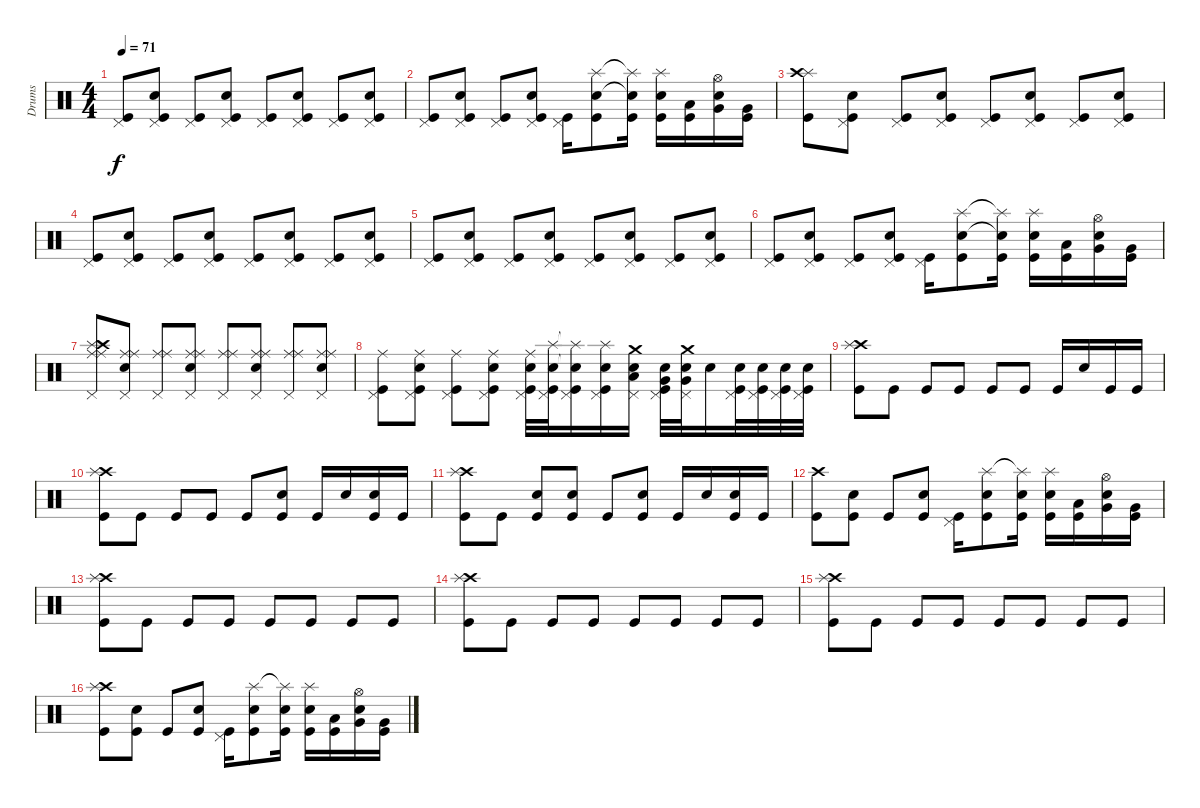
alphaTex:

\track ("Drums" "Drums") {instrument percussion}
\staff {score}
\articulation defaults
\ts (4 4)
\tempo 71
\clef neutral
\ks c
("Kick (hit)" "Pedal Hi-Hat (hit)").8{dy f} ("Snare (hit) 2" "Kick (hit)" "Pedal Hi-Hat (hit)").8 ("Kick (hit)" "Pedal Hi-Hat (hit)").8 ("Electric Snare (hit)" "Kick (hit)" "Pedal Hi-Hat (hit)").8 ("Kick (hit)" "Pedal Hi-Hat (hit)").8 ("Snare (hit) 2" "Kick (hit)" "Pedal Hi-Hat (hit)").8 ("Kick (hit)" "Pedal Hi-Hat (hit)").8 ("Electric Snare (hit)" "Kick (hit)" "Pedal Hi-Hat (hit)").8 |
("Pedal Hi-Hat (hit)" "Kick (hit)").8 ("Snare (hit) 2" "Pedal Hi-Hat (hit)" "Kick (hit)").8 ("Pedal Hi-Hat (hit)" "Kick (hit)").8 ("Electric Snare (hit)" "Pedal Hi-Hat (hit)" "Kick (hit)").8 ("Pedal Hi-Hat (hit)" "Kick (hit)").16 ("Snare (hit) 2" "Splash (hit)" "Kick (hit)").8 ("Snare (hit) 2"{t} "Splash (hit)"{t} "Kick (hit)").16 ("Electric Snare (hit)" "Splash (hit)" "Kick (hit)").16 ("Kick (hit)" "Low Floor Tom (hit)").16 ("Electric Snare (hit)" "Hi-Hat (open)" "Very Low Tom (hit)").16 ("Kick (hit)" "Very Low Tom (hit)").16 |
("Kick (hit)" "Splash (hit)" "Crash high (hit)").8 ("Snare (hit) 2" "Kick (hit)" "Pedal Hi-Hat (hit)").8 ("Kick (hit)" "Pedal Hi-Hat (hit)").8 ("Electric Snare (hit)" "Kick (hit)" "Pedal Hi-Hat (hit)").8 ("Kick (hit)" "Pedal Hi-Hat (hit)").8 ("Snare (hit) 2" "Kick (hit)" "Pedal Hi-Hat (hit)").8 ("Kick (hit)" "Pedal Hi-Hat (hit)").8 ("Electric Snare (hit)" "Kick (hit)" "Pedal Hi-Hat (hit)").8 |
("Kick (hit)" "Pedal Hi-Hat (hit)").8 ("Snare (hit) 2" "Kick (hit)" "Pedal Hi-Hat (hit)").8 ("Kick (hit)" "Pedal Hi-Hat (hit)").8 ("Electric Snare (hit)" "Kick (hit)" "Pedal Hi-Hat (hit)").8 ("Kick (hit)" "Pedal Hi-Hat (hit)").8 ("Snare (hit) 2" "Kick (hit)" "Pedal Hi-Hat (hit)").8 ("Kick (hit)" "Pedal Hi-Hat (hit)").8 ("Electric Snare (hit)" "Kick (hit)" "Pedal Hi-Hat (hit)").8 |
("Kick (hit)" "Pedal Hi-Hat (hit)").8 ("Snare (hit) 2" "Kick (hit)" "Pedal Hi-Hat (hit)").8 ("Kick (hit)" "Pedal Hi-Hat (hit)").8 ("Electric Snare (hit)" "Kick (hit)" "Pedal Hi-Hat (hit)").8 ("Kick (hit)" "Pedal Hi-Hat (hit)").8 ("Snare (hit) 2" "Kick (hit)" "Pedal Hi-Hat (hit)").8 ("Kick (hit)" "Pedal Hi-Hat (hit)").8 ("Electric Snare (hit)" "Kick (hit)" "Pedal Hi-Hat (hit)").8 |
("Pedal Hi-Hat (hit)" "Kick (hit)").8 ("Snare (hit) 2" "Pedal Hi-Hat (hit)" "Kick (hit)").8 ("Pedal Hi-Hat (hit)" "Kick (hit)").8 ("Electric Snare (hit)" "Pedal Hi-Hat (hit)" "Kick (hit)").8 ("Pedal Hi-Hat (hit)" "Kick (hit)").16 ("Snare (hit) 2" "Splash (hit)" "Kick (hit)").8 ("Snare (hit) 2"{t} "Splash (hit)"{t} "Kick (hit)").16 ("Electric Snare (hit)" "Splash (hit)" "Kick (hit)").16 ("Kick (hit)" "Low Floor Tom (hit)").16 ("Electric Snare (hit)" "Hi-Hat (open)" "Very Low Tom (hit)").16 ("Kick (hit)" "Very Low Tom (hit)").16 |
("Splash (hit)" "Crash high (hit)" "Ride (middle)" "Pedal Hi-Hat (hit)" "Ride (middle)").8 ("Snare (hit) 2" "Ride (middle)" "Pedal Hi-Hat (hit)" "Ride (middle)").8 ("Ride (middle)" "Pedal Hi-Hat (hit)" "Ride (middle)").8 ("Electric Snare (hit)" "Ride (middle)" "Pedal Hi-Hat (hit)" "Ride (middle)").8 ("Ride (middle)" "Pedal Hi-Hat (hit)" "Ride (middle)").8 ("Snare (hit) 2" "Ride (middle)" "Pedal Hi-Hat (hit)" "Ride (middle)").8 ("Ride (middle)" "Pedal Hi-Hat (hit)" "Ride (middle)").8 ("Electric Snare (hit)" "Ride (middle)" "Pedal Hi-Hat (hit)" "Ride (middle)").8 |
("Ride (middle)" "Kick (hit)" "Pedal Hi-Hat (hit)").8 ("Snare (hit) 2" "Ride (middle)" "Kick (hit)" "Pedal Hi-Hat (hit)").8 ("Ride (middle)" "Kick (hit)" "Pedal Hi-Hat (hit)").8 ("Electric Snare (hit)" "Ride (middle)" "Kick (hit)" "Pedal Hi-Hat (hit)").8 ("Electric Snare (hit)" "Ride (middle)" "Kick (hit)" "Pedal Hi-Hat (hit)").32 ("Snare (hit) 2" "Splash (hit)" "Kick (hit)" "Pedal Hi-Hat (hit)").32 ("Snare (hit) 2"{t} "Splash (hit)"{t} "Kick (hit)" "Pedal Hi-Hat (hit)").16 ("Electric Snare (hit)" "Splash (hit)" "Kick (hit)" "Pedal Hi-Hat (hit)").16 ("Electric Snare (hit)" "Crash medium (hit)" "Low Floor Tom (hit)" "Pedal Hi-Hat (hit)").16 ("Electric Snare (hit)" "Kick (hit)" "Very Low Tom (hit)" "Pedal Hi-Hat (hit)").32 ("Electric Snare (hit)" "Crash medium (hit)" "Very Low Tom (hit)" "Pedal Hi-Hat (hit)").32 "Electric Snare (hit)".16 ("Electric Snare (hit)" "Kick (hit)" "Pedal Hi-Hat (hit)").32 ("Electric Snare (hit)" "Kick (hit)" "Pedal Hi-Hat (hit)").32 ("Electric Snare (hit)" "Kick (hit)" "Pedal Hi-Hat (hit)").32 ("Electric Snare (hit)" "Kick (hit)" "Pedal Hi-Hat (hit)").32 |
("Kick (hit)" "Crash high (hit)" "Splash (hit)").8 "Kick (hit)".8 "Kick (hit)".8 "Kick (hit)".8 "Kick (hit)".8 "Kick (hit)".8 "Kick (hit)".16 "Electric Snare (hit)".16 "Kick (hit)".16 "Kick (hit)".16 |
("Kick (hit)" "Crash high (hit)" "Splash (hit)").8 "Kick (hit)".8 "Kick (hit)".8 "Kick (hit)".8 "Kick (hit)".8 ("Kick (hit)" "Electric Snare (hit)").8 "Kick (hit)".16 "Electric Snare (hit)".16 ("Kick (hit)" "Electric Snare (hit)").16 "Kick (hit)".16 |
("Kick (hit)" "Crash high (hit)" "Splash (hit)").8 "Kick (hit)".8 ("Kick (hit)" "Electric Snare (hit)").8 ("Kick (hit)" "Electric Snare (hit)").8 "Kick (hit)".8 ("Kick (hit)" "Electric Snare (hit)").8 "Kick (hit)".16 "Electric Snare (hit)".16 ("Kick (hit)" "Electric Snare (hit)").16 "Kick (hit)".16 |
("Kick (hit)" "Crash high (hit)").8 ("Snare (hit) 2" "Kick (hit)").8 "Kick (hit)".8 ("Electric Snare (hit)" "Kick (hit)").8 ("Pedal Hi-Hat (hit)" "Kick (hit)").16 ("Snare (hit) 2" "Splash (hit)" "Kick (hit)").8 ("Electric Snare (hit)" "Splash (hit)"{t} "Kick (hit)").16 ("Electric Snare (hit)" "Splash (hit)" "Kick (hit)").16 ("Kick (hit)" "Low Floor Tom (hit)").16 ("Electric Snare (hit)" "Hi-Hat (open)" "Very Low Tom (hit)").16 ("Kick (hit)" "Very Low Tom (hit)").16 |
("Kick (hit)" "Crash high (hit)" "Splash (hit)").8 "Kick (hit)".8 "Kick (hit)".8 "Kick (hit)".8 "Kick (hit)".8 "Kick (hit)".8 "Kick (hit)".8 "Kick (hit)".8 |
("Kick (hit)" "Crash high (hit)" "Splash (hit)").8 "Kick (hit)".8 "Kick (hit)".8 "Kick (hit)".8 "Kick (hit)".8 "Kick (hit)".8 "Kick (hit)".8 "Kick (hit)".8 |
("Kick (hit)" "Crash high (hit)" "Splash (hit)").8 "Kick (hit)".8 "Kick (hit)".8 "Kick (hit)".8 "Kick (hit)".8 "Kick (hit)".8 "Kick (hit)".8 "Kick (hit)".8 |
("Kick (hit)" "Crash high (hit)" "Splash (hit)").8 ("Snare (hit) 2" "Kick (hit)").8 "Kick (hit)".8 ("Electric Snare (hit)" "Kick (hit)").8 ("Pedal Hi-Hat (hit)" "Kick (hit)").16 ("Snare (hit) 2" "Splash (hit)" "Kick (hit)").8 ("Electric Snare (hit)" "Splash (hit)"{t} "Kick (hit)").16 ("Electric Snare (hit)" "Splash (hit)" "Kick (hit)").16 ("Kick (hit)" "Low Floor Tom (hit)").16 ("Electric Snare (hit)" "Hi-Hat (open)" "Very Low Tom (hit)").16 ("Kick (hit)" "Very Low Tom (hit)").16
